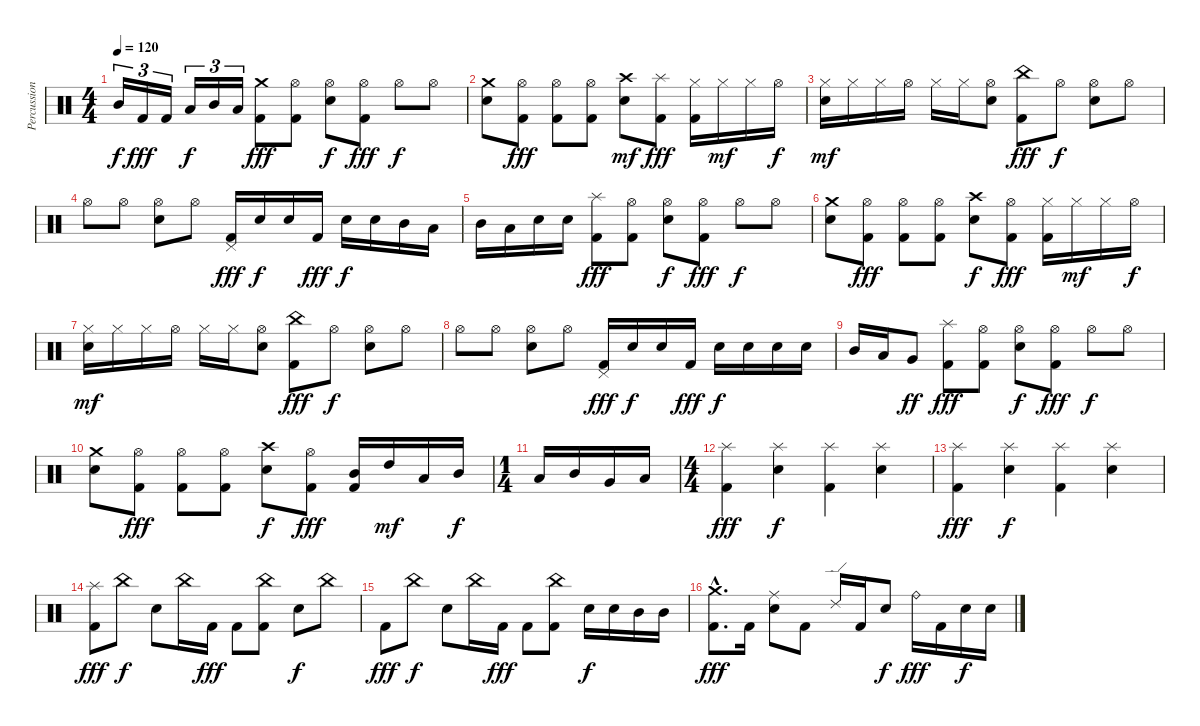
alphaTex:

\track ("Percussion" "Percussion") {instrument percussion}
\staff {score}
\articulation defaults
\ts (4 4)
\tempo 120
\clef neutral
\ks c "Mid Tom (hit)".16{tu (3 2) dy f} "Kick (hit) 2".16{tu (3 2) dy fff} "Kick (hit) 2".16{tu (3 2)} "Low Tom (hit)".16{tu (3 2) dy f} "Mid Tom (hit)".16{tu (3 2)} "Low Tom (hit)".16{tu (3 2)}
("Crash medium (hit)" "Kick (hit) 2").8{dy fff} ("Hi-Hat (open)" "Kick (hit) 2").8 ("Hi-Hat (open)" "Electric Snare (hit)").8{dy f} ("Hi-Hat (open)" "Kick (hit) 2").8{dy fff} "Hi-Hat (open)".8{dy f} "Hi-Hat (open)".8 |
("Crash medium (hit)" "Electric Snare (hit)").8 ("Hi-Hat (open)" "Kick (hit) 2").8{dy fff} ("Hi-Hat (open)" "Kick (hit) 2").8 ("Hi-Hat (open)" "Kick (hit) 2").8 ("Crash high (hit)" "Electric Snare (hit)").8{dy mf} ("Splash (hit)" "Kick (hit) 2").8{dy fff} ("Hi-Hat (closed)" "Kick (hit) 2").16 "Hi-Hat (closed)".16{dy mf} "Hi-Hat (closed)".16 "Hi-Hat (open)".16{dy f} |
("Hi-Hat (closed)" "Electric Snare (hit)").16{dy mf} "Hi-Hat (closed)".16 "Hi-Hat (closed)".16 "Hi-Hat (open)".16 "Hi-Hat (closed)".16 "Hi-Hat (closed)".16 ("Hi-Hat (open)" "Electric Snare (hit)").8 ("China (hit)" "Kick (hit) 2").8{dy fff} "Hi-Hat (open)".8{dy f} ("Hi-Hat (open)" "Electric Snare (hit)").8 "Hi-Hat (open)".8 |
"Hi-Hat (open)".8 "Hi-Hat (open)".8 ("Hi-Hat (open)" "Electric Snare (hit)").8 "Hi-Hat (open)".8 ("Pedal Hi-Hat (hit)" "Kick (hit) 2").16{dy fff} "Electric Snare (hit)".16{dy f} "Electric Snare (hit)".16 "Kick (hit) 2".16{dy fff} "Electric Snare (hit)".16{dy f} "Electric Snare (hit)".16 "Mid Tom (hit)".16 "Low Tom (hit)".16 |
"Mid Tom (hit)".16 "Low Tom (hit)".16 "Electric Snare (hit)".16 "Electric Snare (hit)".16 ("Splash (hit)" "Kick (hit) 2").8{dy fff} ("Hi-Hat (open)" "Kick (hit) 2").8 ("Hi-Hat (open)" "Electric Snare (hit)").8{dy f} ("Hi-Hat (open)" "Kick (hit) 2").8{dy fff} "Hi-Hat (open)".8{dy f} "Hi-Hat (open)".8 |
("Crash medium (hit)" "Electric Snare (hit)").8 ("Hi-Hat (open)" "Kick (hit) 2").8{dy fff} ("Hi-Hat (open)" "Kick (hit) 2").8 ("Hi-Hat (open)" "Kick (hit) 2").8 ("Crash high (hit)" "Electric Snare (hit)").8{dy f} ("Hi-Hat (open)" "Kick (hit) 2").8{dy fff} ("Hi-Hat (closed)" "Kick (hit) 2").16 "Hi-Hat (closed)".16{dy mf} "Hi-Hat (closed)".16 "Hi-Hat (open)".16{dy f} |
("Hi-Hat (closed)" "Electric Snare (hit)").16{dy mf} "Hi-Hat (closed)".16 "Hi-Hat (closed)".16 "Hi-Hat (open)".16 "Hi-Hat (closed)".16 "Hi-Hat (closed)".16 ("Hi-Hat (open)" "Electric Snare (hit)").8 ("China (hit)" "Kick (hit) 2").8{dy fff} "Hi-Hat (open)".8{dy f} ("Hi-Hat (open)" "Electric Snare (hit)").8 "Hi-Hat (open)".8 |
"Hi-Hat (open)".8 "Hi-Hat (open)".8 ("Hi-Hat (open)" "Electric Snare (hit)").8 "Hi-Hat (open)".8 ("Pedal Hi-Hat (hit)" "Kick (hit) 2").16{dy fff} "Electric Snare (hit)".16{dy f} "Electric Snare (hit)".16 "Kick (hit) 2".16{dy fff} "Electric Snare (hit)".16{dy f} "Electric Snare (hit)".16 "Electric Snare (hit)".16 "Electric Snare (hit)".16 |
"Mid Tom (hit)".16 "Low Tom (hit)".16 "Very Low Tom (hit)".8{dy ff} ("Splash (hit)" "Kick (hit) 2").8{dy fff} ("Hi-Hat (open)" "Kick (hit) 2").8 ("Hi-Hat (open)" "Electric Snare (hit)").8{dy f} ("Hi-Hat (open)" "Kick (hit) 2").8{dy fff} "Hi-Hat (open)".8{dy f} "Hi-Hat (open)".8 |
("Crash medium (hit)" "Electric Snare (hit)").8 ("Hi-Hat (open)" "Kick (hit) 2").8{dy fff} ("Hi-Hat (open)" "Kick (hit) 2").8 ("Hi-Hat (open)" "Kick (hit) 2").8 ("Crash high (hit)" "Electric Snare (hit)").8{dy f} ("Hi-Hat (open)" "Kick (hit) 2").8{dy fff} ("Mid Tom (hit)" "Kick (hit) 2").16 "High Tom (hit)".16{dy mf} "Low Tom (hit)".16 "Mid Tom (hit)".16{dy f} |
\ts (1 4)
"Low Tom (hit)".16 "Mid Tom (hit)".16 "Very Low Tom (hit)".16 "Low Tom (hit)".16 |
\ts (4 4)
("Splash (hit)" "Kick (hit) 2").4{dy fff} ("Splash (hit)" "Electric Snare (hit)").4{dy f} ("Splash (hit)" "Kick (hit) 2").4 ("Splash (hit)" "Electric Snare (hit)").4 |
("Splash (hit)" "Kick (hit) 2").4{dy fff} ("Splash (hit)" "Electric Snare (hit)").4{dy f} ("Splash (hit)" "Kick (hit) 2").4 ("Splash (hit)" "Electric Snare (hit)").4 |
("Splash (hit)" "Kick (hit) 2").8{dy fff} "China (hit)".8{dy f} "Electric Snare (hit)".8 "China (hit)".16 "Kick (hit) 2".16{dy fff} "Kick (hit) 2".8 ("China (hit)" "Kick (hit) 2").8 "Electric Snare (hit)".8{dy f} "China (hit)".8 |
"Kick (hit) 2".8{dy fff} "China (hit)".8{dy f} "Electric Snare (hit)".8 "China (hit)".16 "Kick (hit) 2".16{dy fff} "Kick (hit) 2".8 ("China (hit)" "Kick (hit) 2").8 "Electric Snare (hit)".16{dy f} "Electric Snare (hit)".16 "Mid Tom (hit)".16 "Mid Tom (hit)".16 |
("Crash medium (hit)"{hac} "Kick (hit) 2"{hac}).8{d dy fff} "Kick (hit) 2".16 ("Ride (middle)" "Electric Snare (hit)").8 "Kick (hit) 2".8 "Ride (edge) 2".16 "Kick (hit) 2".16 "Electric Snare (hit)".8{dy f} "Ride (bell)".16{dy fff} "Kick (hit) 2".16 "Electric Snare (hit)".16{dy f} "Electric Snare (hit)".16
